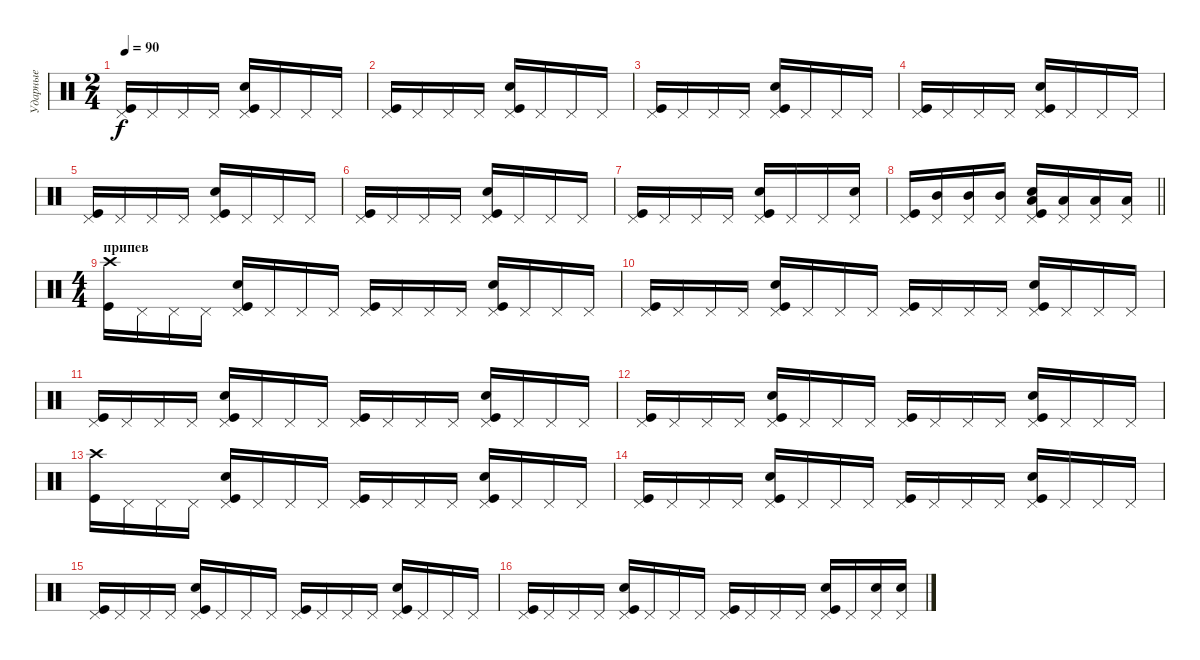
\track ("Ударные" "Ударные") {instrument percussion}
\staff {score}
\articulation defaults
\ts (2 4)
\tempo 90
\clef neutral
\ks c
("Pedal Hi-Hat (hit)" "Kick (hit)").16{dy f} "Pedal Hi-Hat (hit)".16 "Pedal Hi-Hat (hit)".16 "Pedal Hi-Hat (hit)".16 ("Pedal Hi-Hat (hit)" "Kick (hit)" "Snare (hit) 2").16 "Pedal Hi-Hat (hit)".16 "Pedal Hi-Hat (hit)".16 "Pedal Hi-Hat (hit)".16 |
("Pedal Hi-Hat (hit)" "Kick (hit)").16 "Pedal Hi-Hat (hit)".16 "Pedal Hi-Hat (hit)".16 "Pedal Hi-Hat (hit)".16 ("Pedal Hi-Hat (hit)" "Kick (hit)" "Snare (hit) 2").16 "Pedal Hi-Hat (hit)".16 "Pedal Hi-Hat (hit)".16 "Pedal Hi-Hat (hit)".16 |
("Pedal Hi-Hat (hit)" "Kick (hit)").16 "Pedal Hi-Hat (hit)".16 "Pedal Hi-Hat (hit)".16 "Pedal Hi-Hat (hit)".16 ("Pedal Hi-Hat (hit)" "Kick (hit)" "Snare (hit) 2").16 "Pedal Hi-Hat (hit)".16 "Pedal Hi-Hat (hit)".16 "Pedal Hi-Hat (hit)".16 |
("Pedal Hi-Hat (hit)" "Kick (hit)").16 "Pedal Hi-Hat (hit)".16 "Pedal Hi-Hat (hit)".16 "Pedal Hi-Hat (hit)".16 ("Pedal Hi-Hat (hit)" "Kick (hit)" "Snare (hit) 2").16 "Pedal Hi-Hat (hit)".16 "Pedal Hi-Hat (hit)".16 "Pedal Hi-Hat (hit)".16 |
("Pedal Hi-Hat (hit)" "Kick (hit)").16 "Pedal Hi-Hat (hit)".16 "Pedal Hi-Hat (hit)".16 "Pedal Hi-Hat (hit)".16 ("Pedal Hi-Hat (hit)" "Kick (hit)" "Snare (hit) 2").16 "Pedal Hi-Hat (hit)".16 "Pedal Hi-Hat (hit)".16 "Pedal Hi-Hat (hit)".16 |
("Pedal Hi-Hat (hit)" "Kick (hit)").16 "Pedal Hi-Hat (hit)".16 "Pedal Hi-Hat (hit)".16 "Pedal Hi-Hat (hit)".16 ("Pedal Hi-Hat (hit)" "Kick (hit)" "Snare (hit) 2").16 "Pedal Hi-Hat (hit)".16 "Pedal Hi-Hat (hit)".16 "Pedal Hi-Hat (hit)".16 |
("Pedal Hi-Hat (hit)" "Kick (hit)").16 "Pedal Hi-Hat (hit)".16 "Pedal Hi-Hat (hit)".16 "Pedal Hi-Hat (hit)".16 ("Pedal Hi-Hat (hit)" "Kick (hit)" "Snare (hit) 2").16 "Pedal Hi-Hat (hit)".16 "Pedal Hi-Hat (hit)".16 ("Pedal Hi-Hat (hit)" "Snare (hit) 2").16 |
\barLineRight lightlight
("Pedal Hi-Hat (hit)" "Kick (hit)").16 ("Pedal Hi-Hat (hit)" "Mid Tom (hit)").16 ("Pedal Hi-Hat (hit)" "Mid Tom (hit)").16 ("Pedal Hi-Hat (hit)" "Mid Tom (hit)").16 ("Pedal Hi-Hat (hit)" "Kick (hit)" "Snare (hit) 2" "Low Tom (hit)").16 ("Pedal Hi-Hat (hit)" "Low Tom (hit)").16 ("Pedal Hi-Hat (hit)" "Low Tom (hit)").16 ("Pedal Hi-Hat (hit)" "Low Tom (hit)").16 |
\ts (4 4)
\section ("" "припев")
("Crash high (hit)" "Kick (hit)").16 "Pedal Hi-Hat (hit)".16 "Pedal Hi-Hat (hit)".16 "Pedal Hi-Hat (hit)".16 ("Pedal Hi-Hat (hit)" "Kick (hit)" "Snare (hit) 2").16 "Pedal Hi-Hat (hit)".16 "Pedal Hi-Hat (hit)".16 "Pedal Hi-Hat (hit)".16 ("Pedal Hi-Hat (hit)" "Kick (hit)").16 "Pedal Hi-Hat (hit)".16 "Pedal Hi-Hat (hit)".16 "Pedal Hi-Hat (hit)".16 ("Pedal Hi-Hat (hit)" "Kick (hit)" "Snare (hit) 2").16 "Pedal Hi-Hat (hit)".16 "Pedal Hi-Hat (hit)".16 "Pedal Hi-Hat (hit)".16 |
("Pedal Hi-Hat (hit)" "Kick (hit)").16 "Pedal Hi-Hat (hit)".16 "Pedal Hi-Hat (hit)".16 "Pedal Hi-Hat (hit)".16 ("Pedal Hi-Hat (hit)" "Kick (hit)" "Snare (hit) 2").16 "Pedal Hi-Hat (hit)".16 "Pedal Hi-Hat (hit)".16 "Pedal Hi-Hat (hit)".16 ("Pedal Hi-Hat (hit)" "Kick (hit)").16 "Pedal Hi-Hat (hit)".16 "Pedal Hi-Hat (hit)".16 "Pedal Hi-Hat (hit)".16 ("Pedal Hi-Hat (hit)" "Kick (hit)" "Snare (hit) 2").16 "Pedal Hi-Hat (hit)".16 "Pedal Hi-Hat (hit)".16 "Pedal Hi-Hat (hit)".16 |
("Pedal Hi-Hat (hit)" "Kick (hit)").16 "Pedal Hi-Hat (hit)".16 "Pedal Hi-Hat (hit)".16 "Pedal Hi-Hat (hit)".16 ("Pedal Hi-Hat (hit)" "Kick (hit)" "Snare (hit) 2").16 "Pedal Hi-Hat (hit)".16 "Pedal Hi-Hat (hit)".16 "Pedal Hi-Hat (hit)".16 ("Pedal Hi-Hat (hit)" "Kick (hit)").16 "Pedal Hi-Hat (hit)".16 "Pedal Hi-Hat (hit)".16 "Pedal Hi-Hat (hit)".16 ("Pedal Hi-Hat (hit)" "Kick (hit)" "Snare (hit) 2").16 "Pedal Hi-Hat (hit)".16 "Pedal Hi-Hat (hit)".16 "Pedal Hi-Hat (hit)".16 |
("Pedal Hi-Hat (hit)" "Kick (hit)").16 "Pedal Hi-Hat (hit)".16 "Pedal Hi-Hat (hit)".16 "Pedal Hi-Hat (hit)".16 ("Pedal Hi-Hat (hit)" "Kick (hit)" "Snare (hit) 2").16 "Pedal Hi-Hat (hit)".16 "Pedal Hi-Hat (hit)".16 "Pedal Hi-Hat (hit)".16 ("Pedal Hi-Hat (hit)" "Kick (hit)").16 "Pedal Hi-Hat (hit)".16 "Pedal Hi-Hat (hit)".16 "Pedal Hi-Hat (hit)".16 ("Pedal Hi-Hat (hit)" "Kick (hit)" "Snare (hit) 2").16 "Pedal Hi-Hat (hit)".16 "Pedal Hi-Hat (hit)".16 "Pedal Hi-Hat (hit)".16 |
("Crash high (hit)" "Kick (hit)").16 "Pedal Hi-Hat (hit)".16 "Pedal Hi-Hat (hit)".16 "Pedal Hi-Hat (hit)".16 ("Pedal Hi-Hat (hit)" "Kick (hit)" "Snare (hit) 2").16 "Pedal Hi-Hat (hit)".16 "Pedal Hi-Hat (hit)".16 "Pedal Hi-Hat (hit)".16 ("Pedal Hi-Hat (hit)" "Kick (hit)").16 "Pedal Hi-Hat (hit)".16 "Pedal Hi-Hat (hit)".16 "Pedal Hi-Hat (hit)".16 ("Pedal Hi-Hat (hit)" "Kick (hit)" "Snare (hit) 2").16 "Pedal Hi-Hat (hit)".16 "Pedal Hi-Hat (hit)".16 "Pedal Hi-Hat (hit)".16 |
("Pedal Hi-Hat (hit)" "Kick (hit)").16 "Pedal Hi-Hat (hit)".16 "Pedal Hi-Hat (hit)".16 "Pedal Hi-Hat (hit)".16 ("Pedal Hi-Hat (hit)" "Kick (hit)" "Snare (hit) 2").16 "Pedal Hi-Hat (hit)".16 "Pedal Hi-Hat (hit)".16 "Pedal Hi-Hat (hit)".16 ("Pedal Hi-Hat (hit)" "Kick (hit)").16 "Pedal Hi-Hat (hit)".16 "Pedal Hi-Hat (hit)".16 "Pedal Hi-Hat (hit)".16 ("Pedal Hi-Hat (hit)" "Kick (hit)" "Snare (hit) 2").16 "Pedal Hi-Hat (hit)".16 "Pedal Hi-Hat (hit)".16 "Pedal Hi-Hat (hit)".16 |
("Pedal Hi-Hat (hit)" "Kick (hit)").16 "Pedal Hi-Hat (hit)".16 "Pedal Hi-Hat (hit)".16 "Pedal Hi-Hat (hit)".16 ("Pedal Hi-Hat (hit)" "Kick (hit)" "Snare (hit) 2").16 "Pedal Hi-Hat (hit)".16 "Pedal Hi-Hat (hit)".16 "Pedal Hi-Hat (hit)".16 ("Pedal Hi-Hat (hit)" "Kick (hit)").16 "Pedal Hi-Hat (hit)".16 "Pedal Hi-Hat (hit)".16 "Pedal Hi-Hat (hit)".16 ("Pedal Hi-Hat (hit)" "Kick (hit)" "Snare (hit) 2").16 "Pedal Hi-Hat (hit)".16 "Pedal Hi-Hat (hit)".16 "Pedal Hi-Hat (hit)".16 |
("Pedal Hi-Hat (hit)" "Kick (hit)").16 "Pedal Hi-Hat (hit)".16 "Pedal Hi-Hat (hit)".16 "Pedal Hi-Hat (hit)".16 ("Pedal Hi-Hat (hit)" "Kick (hit)" "Snare (hit) 2").16 "Pedal Hi-Hat (hit)".16 "Pedal Hi-Hat (hit)".16 "Pedal Hi-Hat (hit)".16 ("Pedal Hi-Hat (hit)" "Kick (hit)").16 "Pedal Hi-Hat (hit)".16 "Pedal Hi-Hat (hit)".16 "Pedal Hi-Hat (hit)".16 ("Pedal Hi-Hat (hit)" "Kick (hit)" "Snare (hit) 2").16 "Pedal Hi-Hat (hit)".16 ("Pedal Hi-Hat (hit)" "Snare (hit) 2").16 ("Pedal Hi-Hat (hit)" "Snare (hit) 2").16
